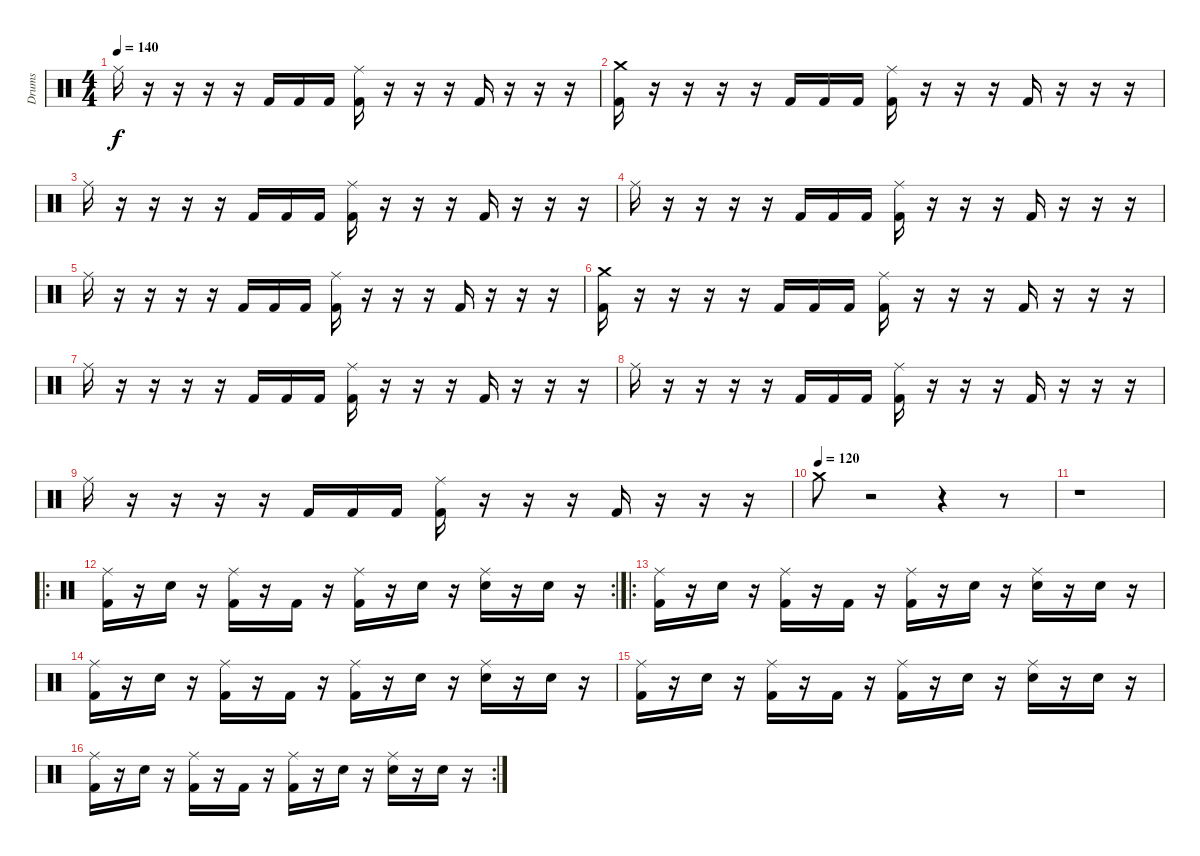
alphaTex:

\track ("Drums" "Drums") {instrument percussion}
\staff {score}
\articulation defaults
\ts (4 4)
\tempo 140
\clef neutral
\ks c "Ride (middle)".16{dy f}
r.16 r.16 r.16 r.16 "Kick (hit) 2".16 "Kick (hit) 2".16 "Kick (hit) 2".16 ("Kick (hit) 2" "Ride (middle)").16 r.16 r.16 r.16 "Kick (hit) 2".16 r.16 r.16 r.16 |
("Kick (hit) 2" "Crash medium (hit)").16 r.16 r.16 r.16 r.16 "Kick (hit) 2".16 "Kick (hit) 2".16 "Kick (hit) 2".16 ("Kick (hit) 2" "Ride (middle)").16 r.16 r.16 r.16 "Kick (hit) 2".16 r.16 r.16 r.16 |
"Ride (middle)".16 r.16 r.16 r.16 r.16 "Kick (hit) 2".16 "Kick (hit) 2".16 "Kick (hit) 2".16 ("Kick (hit) 2" "Ride (middle)").16 r.16 r.16 r.16 "Kick (hit) 2".16 r.16 r.16 r.16 |
"Ride (middle)".16 r.16 r.16 r.16 r.16 "Kick (hit) 2".16 "Kick (hit) 2".16 "Kick (hit) 2".16 ("Kick (hit) 2" "Ride (middle)").16 r.16 r.16 r.16 "Kick (hit) 2".16 r.16 r.16 r.16 |
"Ride (middle)".16 r.16 r.16 r.16 r.16 "Kick (hit) 2".16 "Kick (hit) 2".16 "Kick (hit) 2".16 ("Kick (hit) 2" "Ride (middle)").16 r.16 r.16 r.16 "Kick (hit) 2".16 r.16 r.16 r.16 |
("Kick (hit) 2" "Crash medium (hit)").16 r.16 r.16 r.16 r.16 "Kick (hit) 2".16 "Kick (hit) 2".16 "Kick (hit) 2".16 ("Kick (hit) 2" "Ride (middle)").16 r.16 r.16 r.16 "Kick (hit) 2".16 r.16 r.16 r.16 |
"Ride (middle)".16 r.16 r.16 r.16 r.16 "Kick (hit) 2".16 "Kick (hit) 2".16 "Kick (hit) 2".16 ("Kick (hit) 2" "Ride (middle)").16 r.16 r.16 r.16 "Kick (hit) 2".16 r.16 r.16 r.16 |
"Ride (middle)".16 r.16 r.16 r.16 r.16 "Kick (hit) 2".16 "Kick (hit) 2".16 "Kick (hit) 2".16 ("Kick (hit) 2" "Ride (middle)").16 r.16 r.16 r.16 "Kick (hit) 2".16 r.16 r.16 r.16 |
"Ride (middle)".16 r.16 r.16 r.16 r.16 "Kick (hit) 2".16 "Kick (hit) 2".16 "Kick (hit) 2".16 ("Kick (hit) 2" "Ride (middle)").16 r.16 r.16 r.16 "Kick (hit) 2".16 r.16 r.16 r.16 |
\tempo (120)
"Crash medium (hit)".8 r.2 r.4 r.8 |
r.1 |
\ro
\rc 2
("Kick (hit) 2" "Ride (middle)").16 r.16 "Snare (hit) 2".16 r.16 ("Kick (hit) 2" "Ride (middle)").16 r.16 "Kick (hit) 2".16 r.16 ("Kick (hit) 2" "Ride (middle)").16 r.16 "Snare (hit) 2".16 r.16 ("Snare (hit) 2" "Ride (middle)").16 r.16 "Snare (hit) 2".16 r.16 |
\ro
("Kick (hit) 2" "Ride (middle)").16 r.16 "Snare (hit) 2".16 r.16 ("Kick (hit) 2" "Ride (middle)").16 r.16 "Kick (hit) 2".16 r.16 ("Kick (hit) 2" "Ride (middle)").16 r.16 "Snare (hit) 2".16 r.16 ("Snare (hit) 2" "Ride (middle)").16 r.16 "Snare (hit) 2".16 r.16 |
("Kick (hit) 2" "Ride (middle)").16 r.16 "Snare (hit) 2".16 r.16 ("Kick (hit) 2" "Ride (middle)").16 r.16 "Kick (hit) 2".16 r.16 ("Kick (hit) 2" "Ride (middle)").16 r.16 "Snare (hit) 2".16 r.16 ("Snare (hit) 2" "Ride (middle)").16 r.16 "Snare (hit) 2".16 r.16 |
("Kick (hit) 2" "Ride (middle)").16 r.16 "Snare (hit) 2".16 r.16 ("Kick (hit) 2" "Ride (middle)").16 r.16 "Kick (hit) 2".16 r.16 ("Kick (hit) 2" "Ride (middle)").16 r.16 "Snare (hit) 2".16 r.16 ("Snare (hit) 2" "Ride (middle)").16 r.16 "Snare (hit) 2".16 r.16 |
\rc 2
("Kick (hit) 2" "Ride (middle)").16 r.16 "Snare (hit) 2".16 r.16 ("Kick (hit) 2" "Ride (middle)").16 r.16 "Kick (hit) 2".16 r.16 ("Kick (hit) 2" "Ride (middle)").16 r.16 "Snare (hit) 2".16 r.16 ("Snare (hit) 2" "Ride (middle)").16 r.16 "Snare (hit) 2".16 r.16
